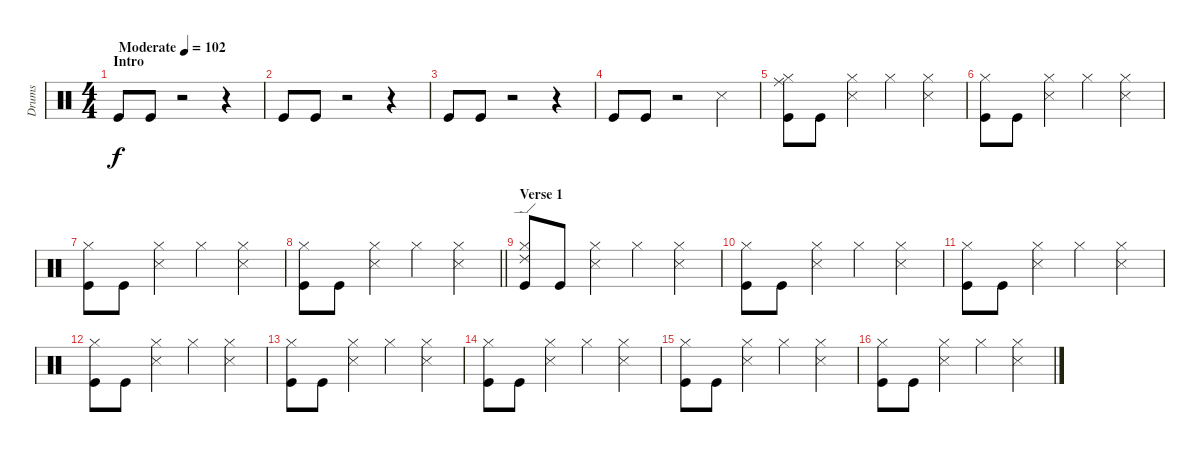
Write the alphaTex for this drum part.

\track ("Drums" "Drums") {instrument percussion}
\staff {score}
\articulation defaults
\ts (4 4)
\section ("" "Intro")
\tempo (102 "Moderate")
\clef neutral
\ks c "Kick (hit)".8{dy f} "Kick (hit)".8
r.2 r.4 |
"Kick (hit)".8 "Kick (hit)".8 r.2 r.4 |
"Kick (hit)".8 "Kick (hit)".8 r.2 r.4 |
"Kick (hit)".8 "Kick (hit)".8 r.2 "Snare (side stick) 3".4 |
("Ride (middle)" "Hi-Hat (closed)" "Kick (hit)").8 "Kick (hit)".8 ("Hi-Hat (closed)" "Snare (side stick) 3").4 "Hi-Hat (closed)".4 ("Hi-Hat (closed)" "Snare (side stick) 3").4 |
("Hi-Hat (closed)" "Kick (hit)").8 "Kick (hit)".8 ("Hi-Hat (closed)" "Snare (side stick) 3").4 "Hi-Hat (closed)".4 ("Hi-Hat (closed)" "Snare (side stick) 3").4 |
("Hi-Hat (closed)" "Kick (hit)").8 "Kick (hit)".8 ("Hi-Hat (closed)" "Snare (side stick) 3").4 "Hi-Hat (closed)".4 ("Hi-Hat (closed)" "Snare (side stick) 3").4 |
\barLineRight lightlight
("Hi-Hat (closed)" "Kick (hit)").8 "Kick (hit)".8 ("Hi-Hat (closed)" "Snare (side stick) 3").4 "Hi-Hat (closed)".4 ("Hi-Hat (closed)" "Snare (side stick) 3").4 |
\section ("" "Verse 1")
("Ride (edge) 2" "Hi-Hat (closed)" "Kick (hit)").8 "Kick (hit)".8 ("Hi-Hat (closed)" "Snare (side stick) 3").4 "Hi-Hat (closed)".4 ("Hi-Hat (closed)" "Snare (side stick) 3").4 |
("Hi-Hat (closed)" "Kick (hit)").8 "Kick (hit)".8 ("Hi-Hat (closed)" "Snare (side stick) 3").4 "Hi-Hat (closed)".4 ("Hi-Hat (closed)" "Snare (side stick) 3").4 |
("Hi-Hat (closed)" "Kick (hit)").8 "Kick (hit)".8 ("Hi-Hat (closed)" "Snare (side stick) 3").4 "Hi-Hat (closed)".4 ("Hi-Hat (closed)" "Snare (side stick) 3").4 |
("Hi-Hat (closed)" "Kick (hit)").8 "Kick (hit)".8 ("Hi-Hat (closed)" "Snare (side stick) 3").4 "Hi-Hat (closed)".4 ("Hi-Hat (closed)" "Snare (side stick) 3").4 |
("Hi-Hat (closed)" "Kick (hit)").8 "Kick (hit)".8 ("Hi-Hat (closed)" "Snare (side stick) 3").4 "Hi-Hat (closed)".4 ("Hi-Hat (closed)" "Snare (side stick) 3").4 |
("Hi-Hat (closed)" "Kick (hit)").8 "Kick (hit)".8 ("Hi-Hat (closed)" "Snare (side stick) 3").4 "Hi-Hat (closed)".4 ("Hi-Hat (closed)" "Snare (side stick) 3").4 |
("Hi-Hat (closed)" "Kick (hit)").8 "Kick (hit)".8 ("Hi-Hat (closed)" "Snare (side stick) 3").4 "Hi-Hat (closed)".4 ("Hi-Hat (closed)" "Snare (side stick) 3").4 |
("Hi-Hat (closed)" "Kick (hit)").8 "Kick (hit)".8 ("Hi-Hat (closed)" "Snare (side stick) 3").4 "Hi-Hat (closed)".4 ("Hi-Hat (closed)" "Snare (side stick) 3").4
